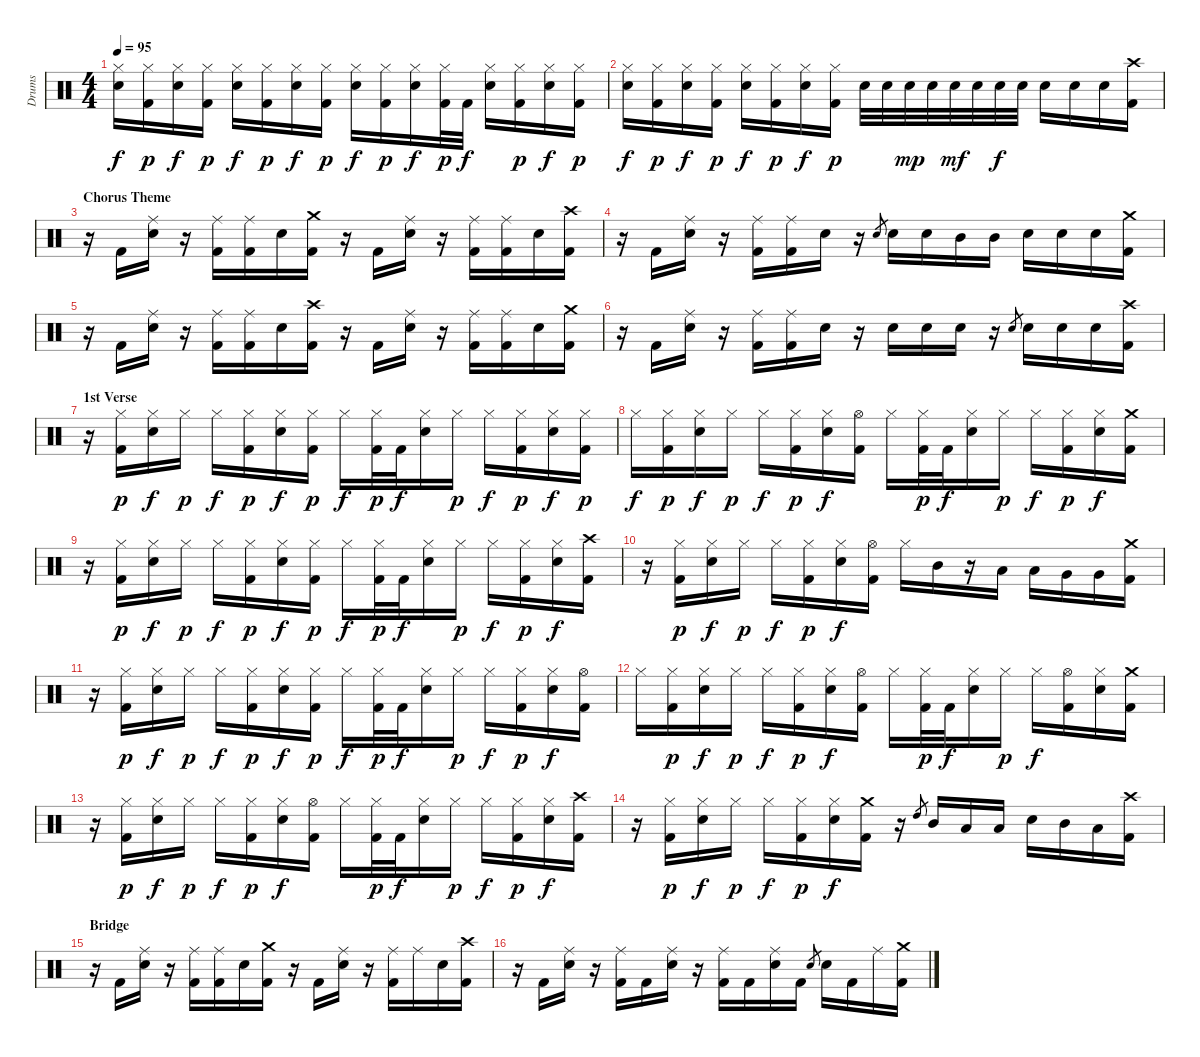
\track ("Drums" "Drums") {instrument percussion}
\staff {score}
\articulation defaults
\ts (4 4)
\tempo 95
\clef neutral
\ks c
("Hi-Hat (closed)" "Snare (hit) 2").16{dy f} ("Hi-Hat (closed)" "Kick (hit) 2").16{dy p} ("Hi-Hat (closed)" "Snare (hit) 2").16{dy f} ("Hi-Hat (closed)" "Kick (hit) 2").16{dy p} ("Hi-Hat (closed)" "Snare (hit) 2").16{dy f} ("Hi-Hat (closed)" "Kick (hit) 2").16{dy p} ("Hi-Hat (closed)" "Snare (hit) 2").16{dy f} ("Hi-Hat (closed)" "Kick (hit) 2").16{dy p} ("Hi-Hat (closed)" "Snare (hit) 2").16{dy f} ("Hi-Hat (closed)" "Kick (hit) 2").16{dy p} ("Hi-Hat (closed)" "Snare (hit) 2").16{dy f} ("Hi-Hat (closed)" "Kick (hit) 2").32{dy p} "Kick (hit) 2".32{dy f} ("Hi-Hat (closed)" "Snare (hit) 2").16 ("Hi-Hat (closed)" "Kick (hit) 2").16{dy p} ("Hi-Hat (closed)" "Snare (hit) 2").16{dy f} ("Hi-Hat (closed)" "Kick (hit) 2").16{dy p} |
("Hi-Hat (closed)" "Snare (hit) 2").16{dy f} ("Hi-Hat (closed)" "Kick (hit) 2").16{dy p} ("Hi-Hat (closed)" "Snare (hit) 2").16{dy f} ("Hi-Hat (closed)" "Kick (hit) 2").16{dy p} ("Hi-Hat (closed)" "Snare (hit) 2").16{dy f} ("Hi-Hat (closed)" "Kick (hit) 2").16{dy p} ("Hi-Hat (closed)" "Snare (hit) 2").16{dy f} ("Hi-Hat (closed)" "Kick (hit) 2").16{dy p} "Snare (hit) 2".32 "Snare (hit) 2".32 "Snare (hit) 2".32{dy mp} "Snare (hit) 2".32 "Snare (hit) 2".32{dy mf} "Snare (hit) 2".32 "Snare (hit) 2".32{dy f} "Snare (hit) 2".32 "Snare (hit) 2".16 "Snare (hit) 2".16 "Snare (hit) 2".16 ("Crash high (hit)" "Kick (hit) 2").16 |
\section ("" "Chorus Theme")
r.16 "Kick (hit) 2".16 ("Ride (middle)" "Snare (hit) 2").16 r.16 ("Ride (middle)" "Kick (hit) 2").16 ("Ride (middle)" "Kick (hit) 2").16 "Snare (hit) 2".16 ("Crash medium (hit)" "Kick (hit) 2").16 r.16 "Kick (hit) 2".16 ("Ride (middle)" "Snare (hit) 2").16 r.16 ("Ride (middle)" "Kick (hit) 2").16 ("Ride (middle)" "Kick (hit) 2").16 "Snare (hit) 2".16 ("Crash high (hit)" "Kick (hit) 2").16 |
r.16 "Kick (hit) 2".16 ("Ride (middle)" "Snare (hit) 2").16 r.16 ("Ride (middle)" "Kick (hit) 2").16 ("Ride (middle)" "Kick (hit) 2").16 "Snare (hit) 2".16 r.16 "Snare (hit) 2".8{gr} "Snare (hit) 2".16 "Snare (hit) 2".16 "Mid Tom (hit)".16 "Mid Tom (hit)".16 "Snare (hit) 2".16 "Snare (hit) 2".16 "Snare (hit) 2".16 ("Crash medium (hit)" "Kick (hit) 2").16 |
r.16 "Kick (hit) 2".16 ("Ride (middle)" "Snare (hit) 2").16 r.16 ("Ride (middle)" "Kick (hit) 2").16 ("Ride (middle)" "Kick (hit) 2").16 "Snare (hit) 2".16 ("Crash high (hit)" "Kick (hit) 2").16 r.16 "Kick (hit) 2".16 ("Ride (middle)" "Snare (hit) 2").16 r.16 ("Ride (middle)" "Kick (hit) 2").16 ("Ride (middle)" "Kick (hit) 2").16 "Snare (hit) 2".16 ("Crash medium (hit)" "Kick (hit) 2").16 |
r.16 "Kick (hit) 2".16 ("Ride (middle)" "Snare (hit) 2").16 r.16 ("Ride (middle)" "Kick (hit) 2").16 ("Ride (middle)" "Kick (hit) 2").16 "Snare (hit) 2".16 r.16 "Snare (hit) 2".16 "Snare (hit) 2".16 "Snare (hit) 2".16 r.16 "Snare (hit) 2".8{gr} "Snare (hit) 2".16 "Snare (hit) 2".16 "Snare (hit) 2".16 ("Crash high (hit)" "Kick (hit) 2").16 |
\section ("" "1st Verse")
r.16 ("Hi-Hat (closed)" "Kick (hit) 2").16{dy p} ("Hi-Hat (closed)" "Snare (hit) 2").16{dy f} "Hi-Hat (closed)".16{dy p} "Hi-Hat (closed)".16{dy f} ("Hi-Hat (closed)" "Kick (hit) 2").16{dy p} ("Hi-Hat (closed)" "Snare (hit) 2").16{dy f} ("Hi-Hat (closed)" "Kick (hit) 2").16{dy p} "Hi-Hat (closed)".16{dy f} ("Hi-Hat (closed)" "Kick (hit) 2").32{dy p} "Kick (hit) 2".32{dy f} ("Hi-Hat (closed)" "Snare (hit) 2").16 "Hi-Hat (closed)".16{dy p} "Hi-Hat (closed)".16{dy f} ("Hi-Hat (closed)" "Kick (hit) 2").16{dy p} ("Hi-Hat (closed)" "Snare (hit) 2").16{dy f} ("Hi-Hat (closed)" "Kick (hit) 2").16{dy p} |
"Hi-Hat (closed)".16{dy f} ("Hi-Hat (closed)" "Kick (hit) 2").16{dy p} ("Hi-Hat (closed)" "Snare (hit) 2").16{dy f} "Hi-Hat (closed)".16{dy p} "Hi-Hat (closed)".16{dy f} ("Hi-Hat (closed)" "Kick (hit) 2").16{dy p} ("Hi-Hat (closed)" "Snare (hit) 2").16{dy f} ("Hi-Hat (open)" "Kick (hit) 2").16 "Hi-Hat (closed)".16 ("Hi-Hat (closed)" "Kick (hit) 2").32{dy p} "Kick (hit) 2".32{dy f} ("Hi-Hat (closed)" "Snare (hit) 2").16 "Hi-Hat (closed)".16{dy p} "Hi-Hat (closed)".16{dy f} ("Hi-Hat (closed)" "Kick (hit) 2").16{dy p} ("Hi-Hat (closed)" "Snare (hit) 2").16{dy f} ("Crash medium (hit)" "Kick (hit) 2").16 |
r.16 ("Hi-Hat (closed)" "Kick (hit) 2").16{dy p} ("Hi-Hat (closed)" "Snare (hit) 2").16{dy f} "Hi-Hat (closed)".16{dy p} "Hi-Hat (closed)".16{dy f} ("Hi-Hat (closed)" "Kick (hit) 2").16{dy p} ("Hi-Hat (closed)" "Snare (hit) 2").16{dy f} ("Hi-Hat (closed)" "Kick (hit) 2").16{dy p} "Hi-Hat (closed)".16{dy f} ("Hi-Hat (closed)" "Kick (hit) 2").32{dy p} "Kick (hit) 2".32{dy f} ("Hi-Hat (closed)" "Snare (hit) 2").16 "Hi-Hat (closed)".16{dy p} "Hi-Hat (closed)".16{dy f} ("Hi-Hat (closed)" "Kick (hit) 2").16{dy p} ("Hi-Hat (closed)" "Snare (hit) 2").16{dy f} ("Crash high (hit)" "Kick (hit) 2").16 |
r.16 ("Hi-Hat (closed)" "Kick (hit) 2").16{dy p} ("Hi-Hat (closed)" "Snare (hit) 2").16{dy f} "Hi-Hat (closed)".16{dy p} "Hi-Hat (closed)".16{dy f} ("Hi-Hat (closed)" "Kick (hit) 2").16{dy p} ("Hi-Hat (closed)" "Snare (hit) 2").16{dy f} ("Hi-Hat (open)" "Kick (hit) 2").16 "Hi-Hat (closed)".16 "Mid Tom (hit)".16 r.16 "Low Tom (hit)".16 "Low Tom (hit)".16 "Very Low Tom (hit)".16 "Very Low Tom (hit)".16 ("Crash medium (hit)" "Kick (hit) 2").16 |
r.16 ("Hi-Hat (closed)" "Kick (hit) 2").16{dy p} ("Hi-Hat (closed)" "Snare (hit) 2").16{dy f} "Hi-Hat (closed)".16{dy p} "Hi-Hat (closed)".16{dy f} ("Hi-Hat (closed)" "Kick (hit) 2").16{dy p} ("Hi-Hat (closed)" "Snare (hit) 2").16{dy f} ("Hi-Hat (closed)" "Kick (hit) 2").16{dy p} "Hi-Hat (closed)".16{dy f} ("Hi-Hat (closed)" "Kick (hit) 2").32{dy p} "Kick (hit) 2".32{dy f} ("Hi-Hat (closed)" "Snare (hit) 2").16 "Hi-Hat (closed)".16{dy p} "Hi-Hat (closed)".16{dy f} ("Hi-Hat (closed)" "Kick (hit) 2").16{dy p} ("Hi-Hat (closed)" "Snare (hit) 2").16{dy f} ("Hi-Hat (open)" "Kick (hit) 2").16 |
"Hi-Hat (closed)".16 ("Hi-Hat (closed)" "Kick (hit) 2").16{dy p} ("Hi-Hat (closed)" "Snare (hit) 2").16{dy f} "Hi-Hat (closed)".16{dy p} "Hi-Hat (closed)".16{dy f} ("Hi-Hat (closed)" "Kick (hit) 2").16{dy p} ("Hi-Hat (closed)" "Snare (hit) 2").16{dy f} ("Hi-Hat (open)" "Kick (hit) 2").16 "Hi-Hat (closed)".16 ("Hi-Hat (closed)" "Kick (hit) 2").32{dy p} "Kick (hit) 2".32{dy f} ("Hi-Hat (closed)" "Snare (hit) 2").16 "Hi-Hat (closed)".16{dy p} "Hi-Hat (closed)".16{dy f} ("Hi-Hat (open)" "Kick (hit) 2").16 ("Hi-Hat (closed)" "Snare (hit) 2").16 ("Crash medium (hit)" "Kick (hit) 2").16 |
r.16 ("Hi-Hat (closed)" "Kick (hit) 2").16{dy p} ("Hi-Hat (closed)" "Snare (hit) 2").16{dy f} "Hi-Hat (closed)".16{dy p} "Hi-Hat (closed)".16{dy f} ("Hi-Hat (closed)" "Kick (hit) 2").16{dy p} ("Hi-Hat (closed)" "Snare (hit) 2").16{dy f} ("Hi-Hat (open)" "Kick (hit) 2").16 "Hi-Hat (closed)".16 ("Hi-Hat (closed)" "Kick (hit) 2").32{dy p} "Kick (hit) 2".32{dy f} ("Hi-Hat (closed)" "Snare (hit) 2").16 "Hi-Hat (closed)".16{dy p} "Hi-Hat (closed)".16{dy f} ("Hi-Hat (closed)" "Kick (hit) 2").16{dy p} ("Hi-Hat (closed)" "Snare (hit) 2").16{dy f} ("Crash high (hit)" "Kick (hit) 2").16 |
r.16 ("Hi-Hat (closed)" "Kick (hit) 2").16{dy p} ("Hi-Hat (closed)" "Snare (hit) 2").16{dy f} "Hi-Hat (closed)".16{dy p} "Hi-Hat (closed)".16{dy f} ("Hi-Hat (closed)" "Kick (hit) 2").16{dy p} ("Hi-Hat (closed)" "Snare (hit) 2").16{dy f} ("Crash medium (hit)" "Kick (hit) 2").16 r.16 "High Tom (hit)".8{gr} "Mid Tom (hit)".16 "Low Tom (hit)".16 "Low Tom (hit)".16 "Snare (hit) 2".16 "Mid Tom (hit)".16 "Low Tom (hit)".16 ("Crash high (hit)" "Kick (hit) 2").16 |
\section ("" "Bridge")
r.16 "Kick (hit) 2".16 ("Ride (middle)" "Snare (hit) 2").16 r.16 ("Ride (middle)" "Kick (hit) 2").16 ("Ride (middle)" "Kick (hit) 2").16 "Snare (hit) 2".16 ("Crash medium (hit)" "Kick (hit) 2").16 r.16 "Kick (hit) 2".16 ("Ride (middle)" "Snare (hit) 2").16 r.16 ("Ride (middle)" "Kick (hit) 2").16 "Ride (middle)".16 "Snare (hit) 2".16 ("Crash high (hit)" "Kick (hit) 2").16 |
r.16 "Kick (hit) 2".16 ("Ride (middle)" "Snare (hit) 2").16 r.16 ("Ride (middle)" "Kick (hit) 2").16 "Kick (hit) 2".16 ("Ride (middle)" "Snare (hit) 2").16 r.16 ("Ride (middle)" "Kick (hit) 2").16 "Kick (hit) 2".16 ("Ride (middle)" "Snare (hit) 2").16 "Kick (hit) 2".16 "Snare (hit) 2".8{gr} "Snare (hit) 2".16 "Kick (hit) 2".16 "Ride (middle)".16 ("Crash medium (hit)" "Kick (hit) 2").16
